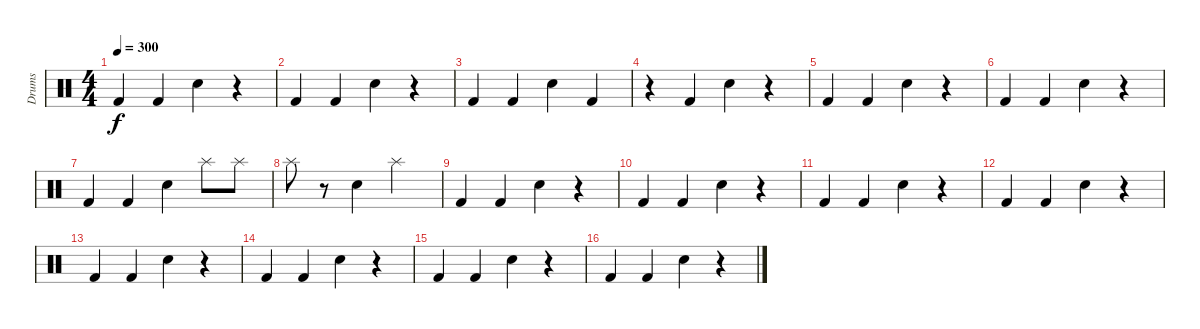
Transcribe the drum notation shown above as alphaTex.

\track ("Drums" "Drums") {instrument percussion}
\staff {score}
\articulation defaults
\ts (4 4)
\tempo 300
\clef neutral
\ks c "Kick (hit) 2".4{dy f} "Kick (hit) 2".4 "Snare (hit) 2".4
r.4 |
"Kick (hit) 2".4 "Kick (hit) 2".4 "Snare (hit) 2".4 r.4 |
"Kick (hit) 2".4 "Kick (hit) 2".4 "Snare (hit) 2".4 "Kick (hit) 2".4 |
r.4 "Kick (hit) 2".4 "Snare (hit) 2".4 r.4 |
"Kick (hit) 2".4 "Kick (hit) 2".4 "Snare (hit) 2".4 r.4 |
"Kick (hit) 2".4 "Kick (hit) 2".4 "Snare (hit) 2".4 r.4 |
"Kick (hit) 2".4 "Kick (hit) 2".4 "Snare (hit) 2".4 "Splash (hit)".8 "Splash (hit)".8 |
"Splash (hit)".8 r.8 "Snare (hit) 2".4 "Splash (hit)".2 |
"Kick (hit) 2".4 "Kick (hit) 2".4 "Snare (hit) 2".4 r.4 |
"Kick (hit) 2".4 "Kick (hit) 2".4 "Snare (hit) 2".4 r.4 |
"Kick (hit) 2".4 "Kick (hit) 2".4 "Snare (hit) 2".4 r.4 |
"Kick (hit) 2".4 "Kick (hit) 2".4 "Snare (hit) 2".4 r.4 |
"Kick (hit) 2".4 "Kick (hit) 2".4 "Snare (hit) 2".4 r.4 |
"Kick (hit) 2".4 "Kick (hit) 2".4 "Snare (hit) 2".4 r.4 |
"Kick (hit) 2".4 "Kick (hit) 2".4 "Snare (hit) 2".4 r.4 |
"Kick (hit) 2".4 "Kick (hit) 2".4 "Snare (hit) 2".4 r.4
